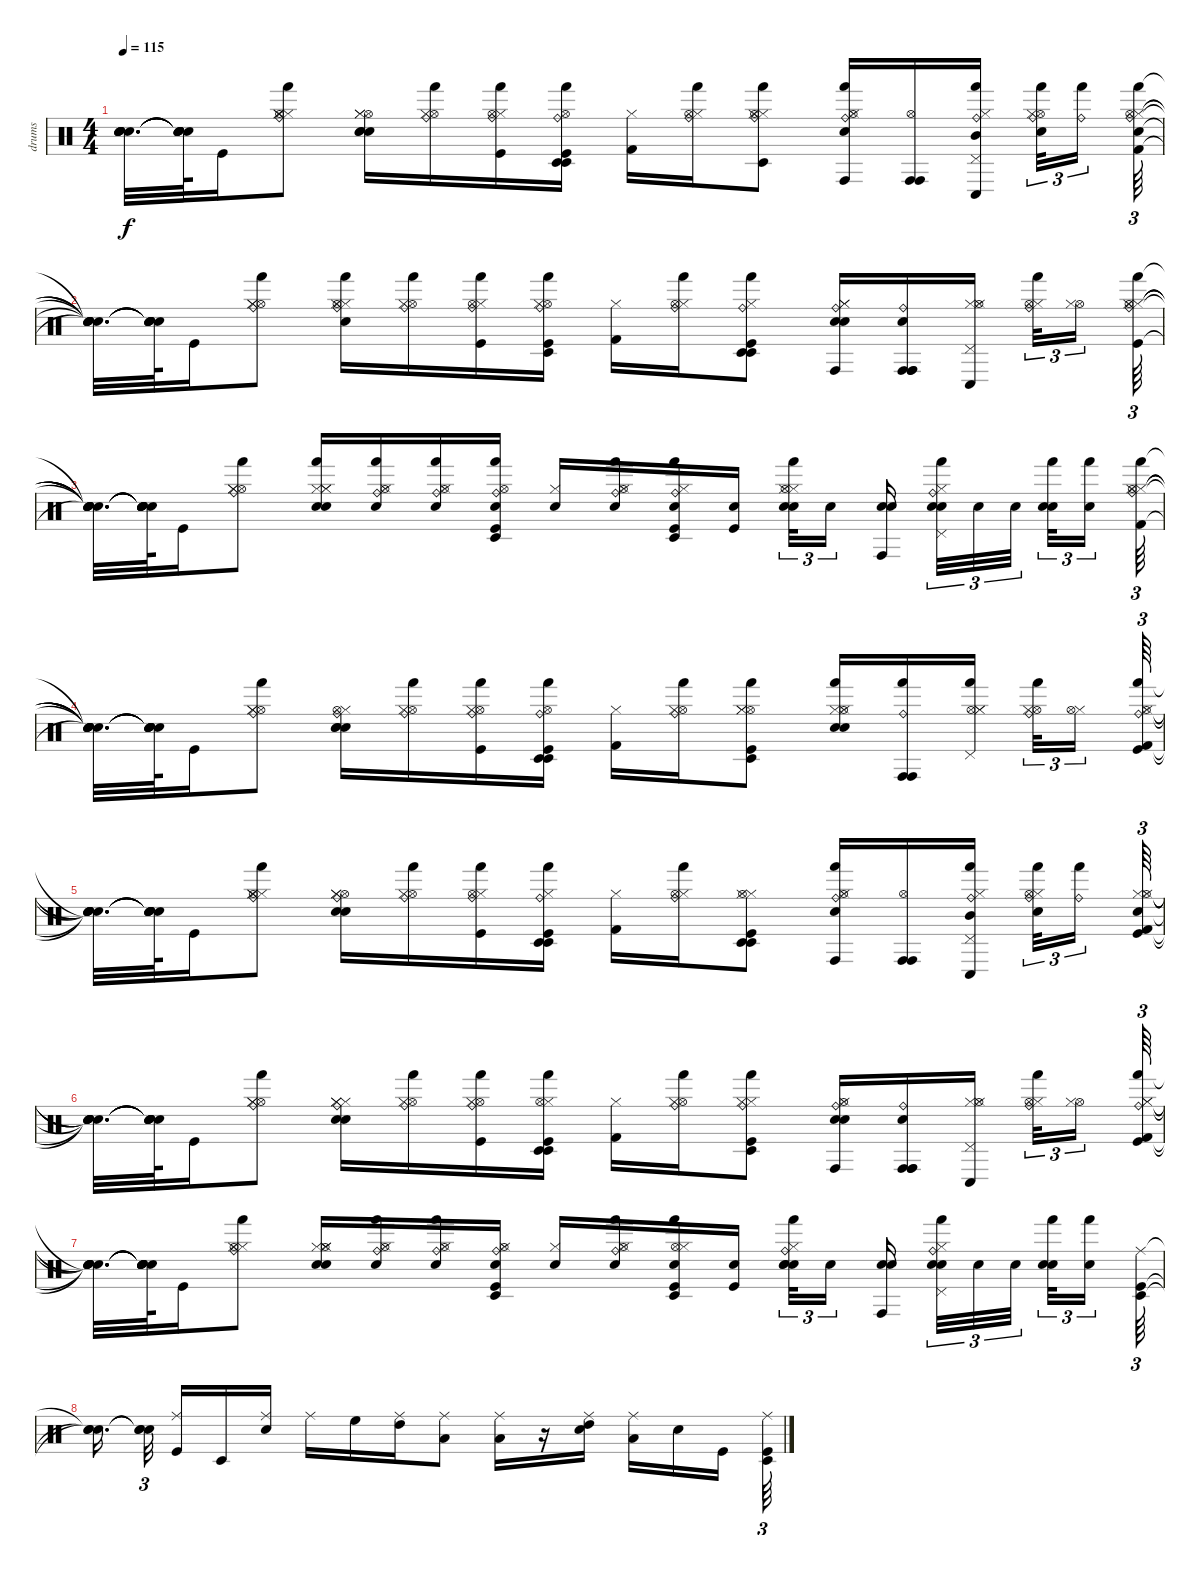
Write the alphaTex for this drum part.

\track ("drums" "drums") {instrument percussion}
\staff {score}
\articulation defaults
\ts (4 4)
\tempo 115
\clef neutral
\ks c
("Snare (hit)"{t} "Snare (hit)"{t} "Snare (hit)"{t} "Snare (hit)"{t} "Snare (hit)"{t} "Snare (hit)"{t}).32{d dy f} ("Snare (hit)"{t} "Snare (hit)"{t} "Snare (hit)"{t} "Snare (hit)"{t} "Snare (hit)"{t} "Snare (hit)"{t}).64 "Kick (hit)".16 ("Hi-Hat (closed)" "Hi-Hat (closed)" "Ride (bell)" "Hi-Hat (closed)" "Hi-Hat (open)" "Hand (hit)").8 ("Hi-Hat (open)" "Hi-Hat (closed)" "Hand Clap (hit)" "Hi-Hat (closed)" "Snare (hit) 2" "Electric Snare (hit)").16 ("Hi-Hat (open)" "Hi-Hat (closed)" "Ride (bell)" "Hand (hit)").16 ("Ride (bell)" "Hi-Hat (closed)" "Hand (hit)" "Kick (hit)" "Hi-Hat (open)").16 ("Hi-Hat (open)" "Hand (hit)" "Timbale low (hit)" "Ride (bell)" "Kick (hit)" "Timbale low (hit)").16 ("Kick (hit) 2" "Hi-Hat (closed)").16 ("Ride (bell)" "Hand (hit)" "Hi-Hat (closed)" "Hi-Hat (open)").16 ("Hi-Hat (closed)" "Hi-Hat (open)" "Hand (hit)" "Timbale low (hit)" "Ride (bell)" "Hi-Hat (closed)").8 ("Hi-Hat (open)" "Hi-Hat (closed)" "Ride (bell)" "Hand Clap (hit)" "Conga high (hit)" "Hand (hit)").16 ("Conga high (hit)" "Hi-Hat (open)" "Conga high (hit)").16 ("Hi-Hat (closed)" "Mid Tom (hit)" "Conga low (hit)" "Hand (hit)" "Ride (bell)" "Pedal Hi-Hat (hit)").16 ("Electric Snare (hit)" "Hi-Hat (open)" "Ride (bell)" "Hi-Hat (closed)" "Hand (hit)").32{tu (3 2)} ("Hand (hit)" "Ride (bell)").16{tu (3 2)} ("Ride (bell)" "Hi-Hat (closed)" "Hi-Hat (open)" "Hand (hit)" "Kick (hit) 2" "Electric Snare (hit)").64{tu (3 2)} |
("Snare (hit)"{t} "Snare (hit)"{t} "Snare (hit)"{t} "Snare (hit)"{t} "Snare (hit)"{t} "Snare (hit)"{t}).32{d} ("Snare (hit)"{t} "Snare (hit)"{t} "Snare (hit)"{t} "Snare (hit)"{t} "Snare (hit)"{t} "Snare (hit)"{t}).64 "Kick (hit)".16 ("Hi-Hat (open)" "Ride (bell)" "Hi-Hat (closed)" "Hand (hit)" "Hi-Hat (closed)").8 ("Hand (hit)" "Ride (bell)" "Hi-Hat (closed)" "Hi-Hat (open)" "Snare (hit) 2" "Hi-Hat (closed)").16 ("Hi-Hat (open)" "Hi-Hat (closed)" "Ride (bell)" "Hand (hit)").16 ("Hi-Hat (closed)" "Kick (hit)" "Hand (hit)" "Hi-Hat (open)" "Ride (bell)").16 ("Hand (hit)" "Hi-Hat (open)" "Ride (bell)" "Timbale low (hit)" "Hi-Hat (closed)" "Kick (hit)").16 ("Hi-Hat (closed)" "Kick (hit) 2").16 ("Hi-Hat (closed)" "Hand (hit)" "Hi-Hat (open)" "Ride (bell)").16 ("Timbale low (hit)" "Hand (hit)" "Kick (hit)" "Hi-Hat (closed)" "Timbale low (hit)" "Ride (bell)").8 ("Ride (bell)" "Electric Snare (hit)" "Hi-Hat (closed)" "Conga high (hit)" "Hand Clap (hit)" "Hi-Hat (closed)").16 ("Electric Snare (hit)" "Conga high (hit)" "Conga high (hit)" "Conga high (hit)" "Ride (bell)").16 ("Conga low (hit)" "Pedal Hi-Hat (hit)" "Hi-Hat (closed)" "Hi-Hat (open)" "Hi-Hat (closed)").16 ("Hi-Hat (closed)" "Hi-Hat (open)" "Hand (hit)" "Ride (bell)").32{tu (3 2)} ("Hi-Hat (open)" "Hi-Hat (closed)").16{tu (3 2)} ("Hi-Hat (closed)" "Hand (hit)" "Hi-Hat (closed)" "Ride (bell)" "Kick (hit)" "Hi-Hat (open)").64{tu (3 2)} |
("Snare (hit)"{t} "Snare (hit)"{t} "Snare (hit)"{t} "Snare (hit)"{t} "Snare (hit)"{t} "Snare (hit)"{t}).32{d} ("Snare (hit)"{t} "Snare (hit)"{t} "Snare (hit)"{t} "Snare (hit)"{t} "Snare (hit)"{t} "Snare (hit)"{t}).64 "Kick (hit)".16 ("Hi-Hat (open)" "Ride (bell)" "Hi-Hat (closed)" "Hand (hit)" "Hi-Hat (closed)").8 ("Electric Snare (hit)" "Hi-Hat (closed)" "Hi-Hat (closed)" "Hi-Hat (closed)" "Electric Snare (hit)" "Hand (hit)").16 ("Hi-Hat (open)" "Ride (bell)" "Hi-Hat (closed)" "Hand (hit)" "Electric Snare (hit)").16 ("Hi-Hat (closed)" "Hi-Hat (open)" "Electric Snare (hit)" "Ride (bell)" "Hand (hit)").16 ("Hi-Hat (open)" "Hand (hit)" "Ride (bell)" "Timbale low (hit)" "Kick (hit)" "Electric Snare (hit)").16 ("Hi-Hat (closed)" "Electric Snare (hit)").16 ("Hand (hit)" "Hi-Hat (open)" "Electric Snare (hit)" "Ride (bell)" "Hi-Hat (closed)").16 ("Ride (bell)" "Electric Snare (hit)" "Kick (hit)" "Timbale low (hit)" "Hi-Hat (closed)" "Hand (hit)").16 ("Electric Snare (hit)" "Kick (hit)").16 ("Electric Snare (hit)" "Hi-Hat (closed)" "Hand (hit)" "Hand Clap (hit)" "Hi-Hat (open)" "Hi-Hat (closed)").32{tu (3 2)} "Electric Snare (hit)".16{tu (3 2)} ("Electric Snare (hit)" "Conga high (hit)" "Electric Snare (hit)").16 ("Electric Snare (hit)" "Ride (bell)" "Hand (hit)" "Electric Snare (hit)" "Pedal Hi-Hat (hit)" "Hi-Hat (closed)").32{tu (3 2)} "Electric Snare (hit)".32{tu (3 2)} "Electric Snare (hit)".32{tu (3 2)} ("Electric Snare (hit)" "Hand (hit)" "Electric Snare (hit)").32{tu (3 2)} ("Electric Snare (hit)" "Hand (hit)").16{tu (3 2)} ("Hi-Hat (closed)" "Ride (bell)" "Hi-Hat (closed)" "Hi-Hat (open)" "Kick (hit) 2" "Hand (hit)").64{tu (3 2)} |
("Snare (hit)"{t} "Snare (hit)"{t} "Snare (hit)"{t} "Snare (hit)"{t} "Snare (hit)"{t} "Snare (hit)"{t}).32{d} ("Snare (hit)"{t} "Snare (hit)"{t} "Snare (hit)"{t} "Snare (hit)"{t} "Snare (hit)"{t} "Snare (hit)"{t}).64 "Kick (hit)".16 ("Hand (hit)" "Ride (bell)" "Hi-Hat (open)" "Hi-Hat (closed)" "Hi-Hat (closed)").8 ("Hi-Hat (closed)" "Ride (bell)" "Electric Snare (hit)" "Hi-Hat (open)" "Electric Snare (hit)" "Hand Clap (hit)").16 ("Hi-Hat (open)" "Hi-Hat (closed)" "Ride (bell)" "Hand (hit)").16 ("Kick (hit)" "Ride (bell)" "Hand (hit)" "Hi-Hat (open)" "Hi-Hat (closed)").16 ("Kick (hit)" "Timbale low (hit)" "Hand (hit)" "Ride (bell)" "Timbale low (hit)" "Hi-Hat (open)").16 ("Hi-Hat (closed)" "Kick (hit) 2").16 ("Hi-Hat (open)" "Hi-Hat (closed)" "Ride (bell)" "Hand (hit)").16 ("Hi-Hat (open)" "Timbale low (hit)" "Hi-Hat (closed)" "Hand (hit)" "Kick (hit)" "Hi-Hat (closed)").8 ("Hi-Hat (closed)" "Electric Snare (hit)" "Hi-Hat (closed)" "Hi-Hat (open)" "Hand (hit)" "Hand Clap (hit)").16 ("Conga high (hit)" "Ride (bell)" "Conga high (hit)" "Hand (hit)").16 ("Pedal Hi-Hat (hit)" "Hi-Hat (open)" "Hi-Hat (closed)" "Hand (hit)" "Hi-Hat (closed)").16 ("Hand (hit)" "Hi-Hat (open)" "Hi-Hat (closed)" "Ride (bell)").32{tu (3 2)} ("Hi-Hat (closed)" "Hi-Hat (open)").16{tu (3 2)} ("Kick (hit)" "Hand (hit)" "Hi-Hat (open)" "Hi-Hat (closed)" "Kick (hit) 2" "Ride (bell)").64{tu (3 2)} |
("Snare (hit)"{t} "Snare (hit)"{t} "Snare (hit)"{t} "Snare (hit)"{t} "Snare (hit)"{t} "Snare (hit)"{t}).32{d} ("Snare (hit)"{t} "Snare (hit)"{t} "Snare (hit)"{t} "Snare (hit)"{t} "Snare (hit)"{t} "Snare (hit)"{t}).64 "Kick (hit)".16 ("Hi-Hat (closed)" "Hi-Hat (closed)" "Hi-Hat (open)" "Hand (hit)" "Ride (bell)" "Hi-Hat (closed)").8 ("Hi-Hat (open)" "Ride (bell)" "Electric Snare (hit)" "Snare (hit) 2" "Hi-Hat (closed)" "Hi-Hat (closed)").16 ("Hi-Hat (open)" "Hi-Hat (closed)" "Ride (bell)" "Hand (hit)").16 ("Ride (bell)" "Hi-Hat (closed)" "Kick (hit)" "Hand (hit)" "Hi-Hat (open)").16 ("Ride (bell)" "Hi-Hat (closed)" "Timbale low (hit)" "Timbale low (hit)" "Hand (hit)" "Kick (hit)").16 ("Kick (hit) 2" "Hi-Hat (closed)").16 ("Hi-Hat (closed)" "Hi-Hat (open)" "Hand (hit)" "Ride (bell)").16 ("Hi-Hat (closed)" "Hi-Hat (closed)" "Kick (hit)" "Hi-Hat (open)" "Timbale low (hit)" "Timbale low (hit)").8 ("Ride (bell)" "Hi-Hat (open)" "Hand Clap (hit)" "Conga high (hit)" "Hi-Hat (closed)" "Hand (hit)").16 ("Conga high (hit)" "Conga high (hit)" "Hi-Hat (open)").16 ("Ride (bell)" "Pedal Hi-Hat (hit)" "Mid Tom (hit)" "Conga low (hit)" "Hand (hit)" "Hi-Hat (closed)").16 ("Hand (hit)" "Hi-Hat (closed)" "Electric Snare (hit)" "Ride (bell)" "Hi-Hat (open)").32{tu (3 2)} ("Hand (hit)" "Ride (bell)").16{tu (3 2)} ("Hi-Hat (closed)" "Kick (hit) 2" "Hi-Hat (closed)" "Hi-Hat (open)" "Kick (hit)" "Electric Snare (hit)").64{tu (3 2)} |
("Snare (hit)"{t} "Snare (hit)"{t} "Snare (hit)"{t} "Snare (hit)"{t} "Snare (hit)"{t} "Snare (hit)"{t}).32{d} ("Snare (hit)"{t} "Snare (hit)"{t} "Snare (hit)"{t} "Snare (hit)"{t} "Snare (hit)"{t} "Snare (hit)"{t}).64 "Kick (hit)".16 ("Hi-Hat (open)" "Ride (bell)" "Hi-Hat (closed)" "Hi-Hat (closed)" "Hand (hit)").8 ("Ride (bell)" "Hi-Hat (closed)" "Hi-Hat (closed)" "Hi-Hat (closed)" "Snare (hit) 2" "Hand Clap (hit)").16 ("Hi-Hat (open)" "Hi-Hat (closed)" "Hand (hit)" "Ride (bell)").16 ("Hi-Hat (open)" "Ride (bell)" "Kick (hit)" "Hand (hit)" "Hi-Hat (closed)").16 ("Hi-Hat (closed)" "Kick (hit)" "Timbale low (hit)" "Hand (hit)" "Hi-Hat (open)" "Timbale low (hit)").16 ("Kick (hit) 2" "Hi-Hat (closed)").16 ("Hi-Hat (open)" "Ride (bell)" "Hi-Hat (closed)" "Hand (hit)").16 ("Ride (bell)" "Timbale low (hit)" "Hand (hit)" "Hi-Hat (closed)" "Kick (hit)" "Hi-Hat (closed)").8 ("Hand Clap (hit)" "Ride (bell)" "Electric Snare (hit)" "Hi-Hat (open)" "Hi-Hat (closed)" "Conga high (hit)").16 ("Electric Snare (hit)" "Conga high (hit)" "Ride (bell)" "Conga high (hit)" "Conga high (hit)").16 ("Conga low (hit)" "Hi-Hat (closed)" "Hi-Hat (closed)" "Pedal Hi-Hat (hit)" "Hi-Hat (open)").16 ("Ride (bell)" "Hand (hit)" "Hi-Hat (closed)" "Hi-Hat (open)").32{tu (3 2)} ("Hi-Hat (open)" "Hi-Hat (closed)").16{tu (3 2)} ("Kick (hit) 2" "Hi-Hat (closed)" "Hi-Hat (closed)" "Hand (hit)" "Ride (bell)" "Kick (hit)").64{tu (3 2)} |
("Snare (hit)"{t} "Snare (hit)"{t} "Snare (hit)"{t} "Snare (hit)"{t} "Snare (hit)"{t} "Snare (hit)"{t}).32{d} ("Snare (hit)"{t} "Snare (hit)"{t} "Snare (hit)"{t} "Snare (hit)"{t} "Snare (hit)"{t} "Snare (hit)"{t}).64 "Kick (hit)".16 ("Hi-Hat (closed)" "Hi-Hat (closed)" "Hi-Hat (open)" "Ride (bell)" "Hand (hit)").8 ("Electric Snare (hit)" "Hand Clap (hit)" "Hi-Hat (closed)" "Hi-Hat (open)" "Hi-Hat (closed)" "Hi-Hat (closed)").16 ("Ride (bell)" "Hand (hit)" "Electric Snare (hit)" "Hi-Hat (closed)" "Hi-Hat (open)").16 ("Hand (hit)" "Hi-Hat (open)" "Hi-Hat (closed)" "Ride (bell)" "Electric Snare (hit)").16 ("Electric Snare (hit)" "Timbale low (hit)" "Ride (bell)" "Kick (hit)" "Hi-Hat (open)" "Hi-Hat (closed)").16 ("Hi-Hat (closed)" "Electric Snare (hit)").16 ("Hand (hit)" "Hi-Hat (closed)" "Hi-Hat (open)" "Ride (bell)" "Electric Snare (hit)").16 ("Hi-Hat (open)" "Electric Snare (hit)" "Timbale low (hit)" "Hand (hit)" "Kick (hit)" "Hi-Hat (closed)").16 ("Kick (hit)" "Electric Snare (hit)").16 ("Ride (bell)" "Electric Snare (hit)" "Electric Snare (hit)" "Hand (hit)" "Hi-Hat (closed)" "Hand Clap (hit)").32{tu (3 2)} "Electric Snare (hit)".16{tu (3 2)} ("Electric Snare (hit)" "Conga high (hit)" "Electric Snare (hit)").16 ("Electric Snare (hit)" "Ride (bell)" "Hand (hit)" "Electric Snare (hit)" "Hi-Hat (closed)" "Pedal Hi-Hat (hit)").32{tu (3 2)} "Electric Snare (hit)".32{tu (3 2)} "Electric Snare (hit)".32{tu (3 2)} ("Electric Snare (hit)" "Electric Snare (hit)" "Hand (hit)").32{tu (3 2)} ("Electric Snare (hit)" "Hand (hit)").16{tu (3 2)} ("Ride (middle)" "Kick (hit)" "Timbale low (hit)").64{tu (3 2)} |
("Snare (hit)"{t} "Snare (hit)"{t} "Snare (hit)"{t}).16{d} ("Snare (hit)"{t} "Snare (hit)"{t} "Snare (hit)"{t}).32{tu (3 2)} ("Kick (hit)" "Ride (middle)").16 "Timbale low (hit)".16 ("Ride (middle)" "Electric Snare (hit)").16 "Ride (middle)".16 "High Floor Tom (hit)".16 ("High Tom (hit)" "Ride (middle)").16 ("Ride (middle)" "Low Tom (hit)").8 ("Low Tom (hit)" "Ride (middle)").16 r.16 ("Ride (middle)" "High Tom (hit)" "Electric Snare (hit)").16 ("Low Tom (hit)" "Ride (middle)").16 "Snare (hit) 2".16 "Kick (hit)".16 ("Timbale low (hit)" "Ride (middle)" "Kick (hit)").64{tu (3 2)}
